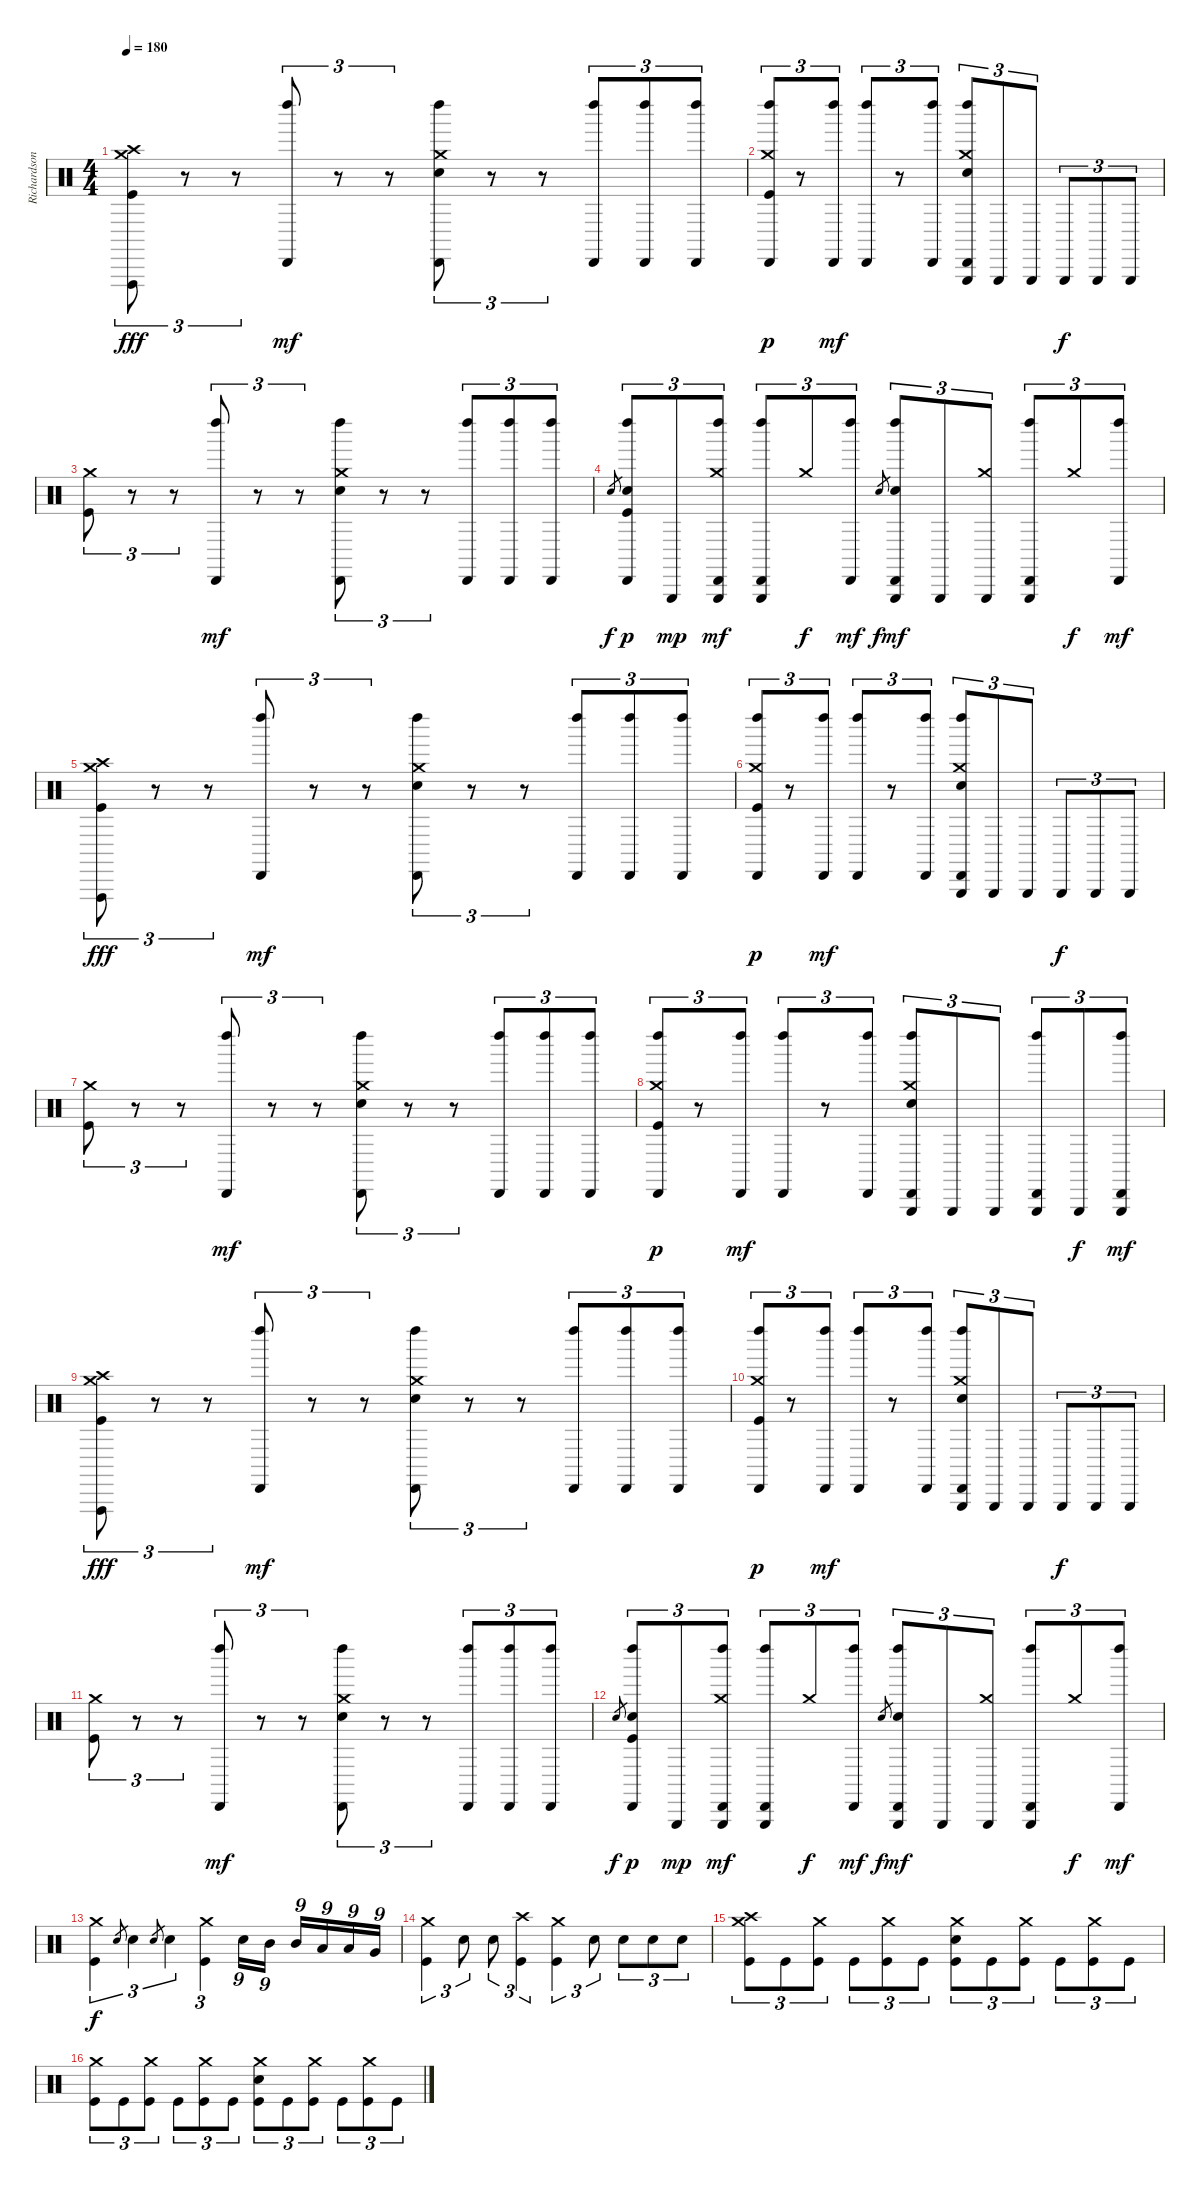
\track ("Richardson" "Richardson") {instrument percussion}
\staff {score}
\articulation defaults
\ts (4 4)
\tempo 180
\clef neutral
\ks c
("Crash medium (hit)" "Crash high (hit)" "Vibraslap (hit)" "Kick (hit)").8{tu (3 2) dy fff} r.8{tu (3 2)} r.8{tu (3 2)} ("Cabasa (hit)" "Left Maraca (hit)").8{tu (3 2) dy mf} r.8{tu (3 2)} r.8{tu (3 2)} ("Crash medium (hit)" "Electric Snare (hit)" "Cabasa (hit)" "Left Maraca (hit)").8{tu (3 2)} r.8{tu (3 2)} r.8{tu (3 2)} ("Cabasa (hit)" "Left Maraca (hit)").8{tu (3 2)} ("Cabasa (hit)" "Left Maraca (hit)").8{tu (3 2)} ("Cabasa (hit)" "Left Maraca (hit)").8{tu (3 2)} |
("Crash medium (hit)" "Left Maraca (hit)" "Cabasa (hit)" "Kick (hit)").8{tu (3 2) dy p} r.8{tu (3 2)} ("Cabasa (hit)" "Left Maraca (hit)").8{tu (3 2) dy mf} ("Cabasa (hit)" "Left Maraca (hit)").8{tu (3 2)} r.8{tu (3 2)} ("Cabasa (hit)" "Left Maraca (hit)").8{tu (3 2)} ("Crash medium (hit)" "Triangle (hit)" "Electric Snare (hit)" "Cabasa (hit)" "Left Maraca (hit)").8{tu (3 2)} "Triangle (hit)".8{tu (3 2)} "Triangle (hit)".8{tu (3 2)} "Triangle (hit)".8{tu (3 2) dy f} "Triangle (hit)".8{tu (3 2)} "Triangle (hit)".8{tu (3 2)} |
("Crash medium (hit)" "Kick (hit)").8{tu (3 2)} r.8{tu (3 2)} r.8{tu (3 2)} ("Cabasa (hit)" "Left Maraca (hit)").8{tu (3 2) dy mf} r.8{tu (3 2)} r.8{tu (3 2)} ("Crash medium (hit)" "Electric Snare (hit)" "Cabasa (hit)" "Left Maraca (hit)").8{tu (3 2)} r.8{tu (3 2)} r.8{tu (3 2)} ("Cabasa (hit)" "Left Maraca (hit)").8{tu (3 2)} ("Cabasa (hit)" "Left Maraca (hit)").8{tu (3 2)} ("Cabasa (hit)" "Left Maraca (hit)").8{tu (3 2)} |
"Electric Snare (hit)".8{gr dy f} ("Left Maraca (hit)" "Electric Snare (hit)" "Cabasa (hit)" "Kick (hit)").8{tu (3 2) dy p} "Triangle (hit)".8{tu (3 2) dy mp} ("Crash medium (hit)" "Triangle (hit)" "Cabasa (hit)" "Left Maraca (hit)").8{tu (3 2) dy mf} ("Triangle (hit)" "Cabasa (hit)" "Left Maraca (hit)").8{tu (3 2)} "Crash medium (hit)".8{tu (3 2) dy f} ("Cabasa (hit)" "Left Maraca (hit)").8{tu (3 2) dy mf} "Electric Snare (hit)".8{gr dy f} ("Triangle (hit)" "Electric Snare (hit)" "Cabasa (hit)" "Left Maraca (hit)").8{tu (3 2) dy mf} "Triangle (hit)".8{tu (3 2)} ("Crash medium (hit)" "Triangle (hit)").8{tu (3 2)} ("Triangle (hit)" "Cabasa (hit)" "Left Maraca (hit)").8{tu (3 2)} "Crash medium (hit)".8{tu (3 2) dy f} ("Cabasa (hit)" "Left Maraca (hit)").8{tu (3 2) dy mf} |
("Crash medium (hit)" "Crash high (hit)" "Vibraslap (hit)" "Kick (hit)").8{tu (3 2) dy fff} r.8{tu (3 2)} r.8{tu (3 2)} ("Cabasa (hit)" "Left Maraca (hit)").8{tu (3 2) dy mf} r.8{tu (3 2)} r.8{tu (3 2)} ("Crash medium (hit)" "Electric Snare (hit)" "Cabasa (hit)" "Left Maraca (hit)").8{tu (3 2)} r.8{tu (3 2)} r.8{tu (3 2)} ("Cabasa (hit)" "Left Maraca (hit)").8{tu (3 2)} ("Cabasa (hit)" "Left Maraca (hit)").8{tu (3 2)} ("Cabasa (hit)" "Left Maraca (hit)").8{tu (3 2)} |
("Crash medium (hit)" "Left Maraca (hit)" "Cabasa (hit)" "Kick (hit)").8{tu (3 2) dy p} r.8{tu (3 2)} ("Cabasa (hit)" "Left Maraca (hit)").8{tu (3 2) dy mf} ("Cabasa (hit)" "Left Maraca (hit)").8{tu (3 2)} r.8{tu (3 2)} ("Cabasa (hit)" "Left Maraca (hit)").8{tu (3 2)} ("Crash medium (hit)" "Triangle (hit)" "Electric Snare (hit)" "Cabasa (hit)" "Left Maraca (hit)").8{tu (3 2)} "Triangle (hit)".8{tu (3 2)} "Triangle (hit)".8{tu (3 2)} "Triangle (hit)".8{tu (3 2) dy f} "Triangle (hit)".8{tu (3 2)} "Triangle (hit)".8{tu (3 2)} |
("Crash medium (hit)" "Kick (hit)").8{tu (3 2)} r.8{tu (3 2)} r.8{tu (3 2)} ("Cabasa (hit)" "Left Maraca (hit)").8{tu (3 2) dy mf} r.8{tu (3 2)} r.8{tu (3 2)} ("Crash medium (hit)" "Electric Snare (hit)" "Cabasa (hit)" "Left Maraca (hit)").8{tu (3 2)} r.8{tu (3 2)} r.8{tu (3 2)} ("Cabasa (hit)" "Left Maraca (hit)").8{tu (3 2)} ("Cabasa (hit)" "Left Maraca (hit)").8{tu (3 2)} ("Cabasa (hit)" "Left Maraca (hit)").8{tu (3 2)} |
("Crash medium (hit)" "Left Maraca (hit)" "Cabasa (hit)" "Kick (hit)").8{tu (3 2) dy p} r.8{tu (3 2)} ("Cabasa (hit)" "Left Maraca (hit)").8{tu (3 2) dy mf} ("Cabasa (hit)" "Left Maraca (hit)").8{tu (3 2)} r.8{tu (3 2)} ("Cabasa (hit)" "Left Maraca (hit)").8{tu (3 2)} ("Crash medium (hit)" "Triangle (hit)" "Electric Snare (hit)" "Cabasa (hit)" "Left Maraca (hit)").8{tu (3 2)} "Triangle (hit)".8{tu (3 2)} "Triangle (hit)".8{tu (3 2)} ("Triangle (hit)" "Cabasa (hit)" "Left Maraca (hit)").8{tu (3 2)} "Triangle (hit)".8{tu (3 2) dy f} ("Triangle (hit)" "Cabasa (hit)" "Left Maraca (hit)").8{tu (3 2) dy mf} |
("Crash medium (hit)" "Crash high (hit)" "Vibraslap (hit)" "Kick (hit)").8{tu (3 2) dy fff} r.8{tu (3 2)} r.8{tu (3 2)} ("Cabasa (hit)" "Left Maraca (hit)").8{tu (3 2) dy mf} r.8{tu (3 2)} r.8{tu (3 2)} ("Crash medium (hit)" "Electric Snare (hit)" "Cabasa (hit)" "Left Maraca (hit)").8{tu (3 2)} r.8{tu (3 2)} r.8{tu (3 2)} ("Cabasa (hit)" "Left Maraca (hit)").8{tu (3 2)} ("Cabasa (hit)" "Left Maraca (hit)").8{tu (3 2)} ("Cabasa (hit)" "Left Maraca (hit)").8{tu (3 2)} |
("Crash medium (hit)" "Left Maraca (hit)" "Cabasa (hit)" "Kick (hit)").8{tu (3 2) dy p} r.8{tu (3 2)} ("Cabasa (hit)" "Left Maraca (hit)").8{tu (3 2) dy mf} ("Cabasa (hit)" "Left Maraca (hit)").8{tu (3 2)} r.8{tu (3 2)} ("Cabasa (hit)" "Left Maraca (hit)").8{tu (3 2)} ("Crash medium (hit)" "Triangle (hit)" "Electric Snare (hit)" "Cabasa (hit)" "Left Maraca (hit)").8{tu (3 2)} "Triangle (hit)".8{tu (3 2)} "Triangle (hit)".8{tu (3 2)} "Triangle (hit)".8{tu (3 2) dy f} "Triangle (hit)".8{tu (3 2)} "Triangle (hit)".8{tu (3 2)} |
("Crash medium (hit)" "Kick (hit)").8{tu (3 2)} r.8{tu (3 2)} r.8{tu (3 2)} ("Cabasa (hit)" "Left Maraca (hit)").8{tu (3 2) dy mf} r.8{tu (3 2)} r.8{tu (3 2)} ("Crash medium (hit)" "Electric Snare (hit)" "Cabasa (hit)" "Left Maraca (hit)").8{tu (3 2)} r.8{tu (3 2)} r.8{tu (3 2)} ("Cabasa (hit)" "Left Maraca (hit)").8{tu (3 2)} ("Cabasa (hit)" "Left Maraca (hit)").8{tu (3 2)} ("Cabasa (hit)" "Left Maraca (hit)").8{tu (3 2)} |
"Electric Snare (hit)".8{gr dy f} ("Left Maraca (hit)" "Electric Snare (hit)" "Cabasa (hit)" "Kick (hit)").8{tu (3 2) dy p} "Triangle (hit)".8{tu (3 2) dy mp} ("Crash medium (hit)" "Triangle (hit)" "Cabasa (hit)" "Left Maraca (hit)").8{tu (3 2) dy mf} ("Triangle (hit)" "Cabasa (hit)" "Left Maraca (hit)").8{tu (3 2)} "Crash medium (hit)".8{tu (3 2) dy f} ("Cabasa (hit)" "Left Maraca (hit)").8{tu (3 2) dy mf} "Electric Snare (hit)".8{gr dy f} ("Triangle (hit)" "Electric Snare (hit)" "Cabasa (hit)" "Left Maraca (hit)").8{tu (3 2) dy mf} "Triangle (hit)".8{tu (3 2)} ("Crash medium (hit)" "Triangle (hit)").8{tu (3 2)} ("Triangle (hit)" "Cabasa (hit)" "Left Maraca (hit)").8{tu (3 2)} "Crash medium (hit)".8{tu (3 2) dy f} ("Cabasa (hit)" "Left Maraca (hit)").8{tu (3 2) dy mf} |
("Crash medium (hit)" "Kick (hit)").4{tu (3 2) dy f} "Electric Snare (hit)".8{gr} "Electric Snare (hit)".4{tu (3 2)} "Electric Snare (hit)".8{gr} "Electric Snare (hit)".4{tu (3 2)} ("Crash medium (hit)" "Kick (hit)").4{tu (3 2)} "Electric Snare (hit)".16{tu (9 8)} "Mid Tom (hit)".16{tu (9 8)} "Mid Tom (hit)".16{tu (9 8)} "Low Tom (hit)".16{tu (9 8)} "Low Tom (hit)".16{tu (9 8)} "Very Low Tom (hit)".16{tu (9 8)} |
("Crash medium (hit)" "Kick (hit)").4{tu (3 2)} "Electric Snare (hit)".8{tu (3 2)} "Electric Snare (hit)".8{tu (3 2)} ("Crash high (hit)" "Kick (hit)").4{tu (3 2)} ("Crash medium (hit)" "Kick (hit)").4{tu (3 2)} "Electric Snare (hit)".8{tu (3 2)} "Electric Snare (hit)".8{tu (3 2)} "Electric Snare (hit)".8{tu (3 2)} "Electric Snare (hit)".8{tu (3 2)} |
("Crash medium (hit)" "Crash high (hit)" "Kick (hit)").8{tu (3 2)} "Kick (hit)".8{tu (3 2)} ("Crash medium (hit)" "Kick (hit)").8{tu (3 2)} "Kick (hit)".8{tu (3 2)} ("Crash medium (hit)" "Kick (hit)").8{tu (3 2)} "Kick (hit)".8{tu (3 2)} ("Crash medium (hit)" "Electric Snare (hit)" "Kick (hit)").8{tu (3 2)} "Kick (hit)".8{tu (3 2)} ("Crash medium (hit)" "Kick (hit)").8{tu (3 2)} "Kick (hit)".8{tu (3 2)} ("Crash medium (hit)" "Kick (hit)").8{tu (3 2)} "Kick (hit)".8{tu (3 2)} |
("Crash medium (hit)" "Kick (hit)").8{tu (3 2)} "Kick (hit)".8{tu (3 2)} ("Crash medium (hit)" "Kick (hit)").8{tu (3 2)} "Kick (hit)".8{tu (3 2)} ("Crash medium (hit)" "Kick (hit)").8{tu (3 2)} "Kick (hit)".8{tu (3 2)} ("Crash medium (hit)" "Electric Snare (hit)" "Kick (hit)").8{tu (3 2)} "Kick (hit)".8{tu (3 2)} ("Crash medium (hit)" "Kick (hit)").8{tu (3 2)} "Kick (hit)".8{tu (3 2)} ("Crash medium (hit)" "Kick (hit)").8{tu (3 2)} "Kick (hit)".8{tu (3 2)}
